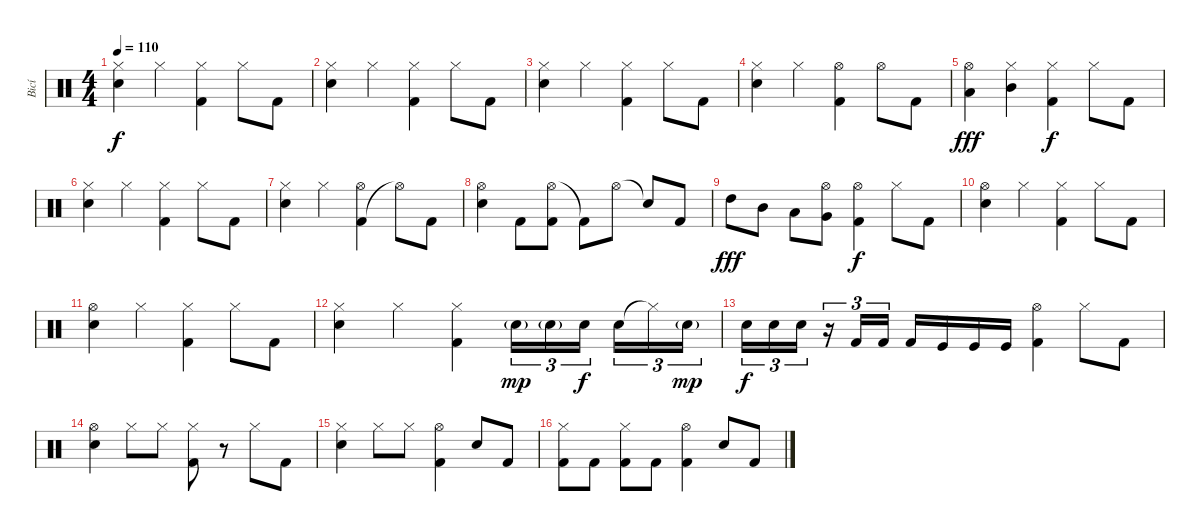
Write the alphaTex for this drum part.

\track ("Bicí" "Bicí") {instrument percussion}
\staff {score}
\articulation defaults
\ts (4 4)
\tempo 110
\clef neutral
\ks c
("Snare (hit) 2" "Hi-Hat (closed)").4{dy f} "Hi-Hat (closed)".4 ("Kick (hit) 2" "Hi-Hat (closed)").4 "Hi-Hat (closed)".8 "Kick (hit) 2".8 |
("Snare (hit) 2" "Hi-Hat (closed)").4 "Hi-Hat (closed)".4 ("Kick (hit) 2" "Hi-Hat (closed)").4 "Hi-Hat (closed)".8 "Kick (hit) 2".8 |
("Snare (hit) 2" "Hi-Hat (closed)").4 "Hi-Hat (closed)".4 ("Kick (hit) 2" "Hi-Hat (closed)").4 "Hi-Hat (closed)".8 "Kick (hit) 2".8 |
("Snare (hit) 2" "Hi-Hat (closed)").4 "Hi-Hat (closed)".4 ("Hi-Hat (open)" "Kick (hit) 2").4{volume 13} "Hi-Hat (open)".8 "Kick (hit) 2".8 |
("Low Tom (hit)" "Hi-Hat (open)").4{dy fff} ("Mid Tom (hit)" "Hi-Hat (closed)").4 ("Kick (hit) 2" "Hi-Hat (closed)").4{dy f} "Hi-Hat (closed)".8 "Kick (hit) 2".8 |
("Snare (hit) 2" "Hi-Hat (closed)").4 "Hi-Hat (closed)".4 ("Kick (hit) 2" "Hi-Hat (closed)").4 "Hi-Hat (closed)".8 "Kick (hit) 2".8 |
("Snare (hit) 2" "Hi-Hat (closed)").4 "Hi-Hat (closed)".4 ("Kick (hit) 2" "Hi-Hat (open)").4 "Hi-Hat (open)"{t}.8 "Kick (hit) 2".8 |
("Snare (hit) 2" "Hi-Hat (open)").4 "Kick (hit) 2".8 ("Hi-Hat (open)" "Kick (hit) 2").8 "Kick (hit) 2"{t}.8 "Hi-Hat (open)".8 "Snare (hit)"{t}.8 "Kick (hit) 2".8 |
"High Tom (hit)".8{dy fff} "Mid Tom (hit)".8 "Low Tom (hit)".8 ("Very Low Tom (hit)" "Hi-Hat (open)").8 ("Kick (hit) 2" "Hi-Hat (open)").4{dy f} "Hi-Hat (closed)".8 "Kick (hit) 2".8 |
("Snare (hit) 2" "Hi-Hat (open)").4 "Hi-Hat (closed)".4 ("Kick (hit) 2" "Hi-Hat (closed)").4 "Hi-Hat (closed)".8 "Kick (hit) 2".8 |
("Snare (hit) 2" "Hi-Hat (open)").4 "Hi-Hat (closed)".4 ("Kick (hit) 2" "Hi-Hat (closed)").4 "Hi-Hat (closed)".8 "Kick (hit) 2".8 |
("Snare (hit) 2" "Hi-Hat (closed)").4 "Hi-Hat (closed)".4 ("Kick (hit) 2" "Hi-Hat (closed)").4 "Electric Snare (hit)"{g}.16{tu (3 2) dy mp} "Electric Snare (hit)"{g}.16{tu (3 2)} "Electric Snare (hit)".16{tu (3 2) dy f} "Electric Snare (hit)".16{tu (3 2)} "Hi-Hat (closed)"{t}.16{tu (3 2)} "Snare (hit) 2"{g}.16{tu (3 2) dy mp} |
"Snare (hit) 2".16{tu (3 2) dy f} "Snare (hit) 2".16{tu (3 2)} "Snare (hit) 2".16{tu (3 2)} r.16{tu (3 2)} "Kick (hit) 2".16{tu (3 2)} "Kick (hit) 2".16{tu (3 2)} "Kick (hit) 2".16 "Kick (hit)".16 "Kick (hit)".16 "Kick (hit)".16 ("Kick (hit) 2" "Hi-Hat (open)").4 "Hi-Hat (closed)".8 "Kick (hit) 2".8 |
("Snare (hit) 2" "Hi-Hat (open)").4 "Hi-Hat (closed)".8 "Hi-Hat (closed)".8 ("Kick (hit) 2" "Hi-Hat (closed)").8 r.8 "Hi-Hat (closed)".8 "Kick (hit) 2".8 |
("Snare (hit) 2" "Hi-Hat (closed)").4 "Hi-Hat (closed)".8 "Hi-Hat (closed)".8 ("Kick (hit) 2" "Hi-Hat (open)").4 "Snare (hit) 2".8 "Kick (hit) 2".8 |
("Kick (hit) 2" "Hi-Hat (closed)").8 "Kick (hit) 2".8 ("Kick (hit) 2" "Hi-Hat (closed)").8 "Kick (hit) 2".8 ("Kick (hit) 2" "Hi-Hat (open)").4 "Snare (hit) 2".8 "Kick (hit) 2".8
